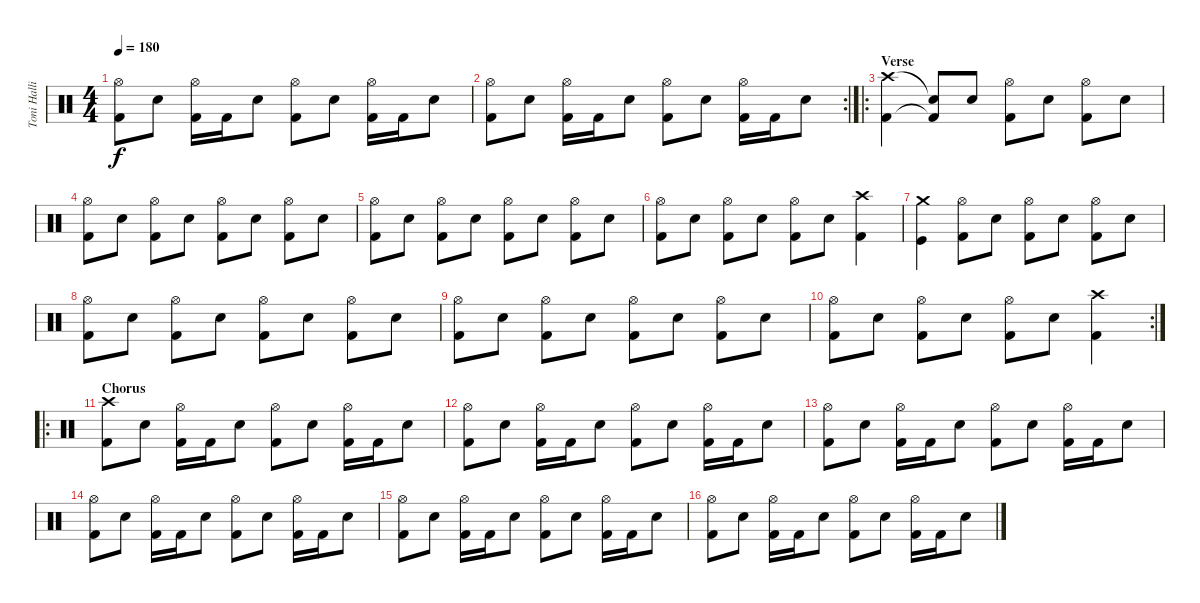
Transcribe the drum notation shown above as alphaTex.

\track ("Toni Hallio" "Toni Halli") {instrument percussion}
\staff {score}
\articulation defaults
\ts (4 4)
\tempo 180
\clef neutral
\ks c
("Hi-Hat (open)" "Kick (hit) 2").8{dy f} "Electric Snare (hit)".8 ("Hi-Hat (open)" "Kick (hit) 2").16 "Kick (hit) 2".16 "Electric Snare (hit)".8 ("Hi-Hat (open)" "Kick (hit) 2").8 "Electric Snare (hit)".8 ("Hi-Hat (open)" "Kick (hit) 2").16 "Kick (hit) 2".16 "Electric Snare (hit)".8 |
\rc 2
("Hi-Hat (open)" "Kick (hit) 2").8 "Electric Snare (hit)".8 ("Hi-Hat (open)" "Kick (hit) 2").16 "Kick (hit) 2".16 "Electric Snare (hit)".8 ("Hi-Hat (open)" "Kick (hit) 2").8 "Electric Snare (hit)".8 ("Hi-Hat (open)" "Kick (hit) 2").16 "Kick (hit) 2".16 "Electric Snare (hit)".8 |
\ro
\section ("" "Verse")
("Crash high (hit)" "Kick (hit) 2").4 ("Snare (hit)"{t} "Kick (hit) 2"{t}).8 "Electric Snare (hit)".8 ("Hi-Hat (open)" "Kick (hit) 2").8 "Electric Snare (hit)".8 ("Hi-Hat (open)" "Kick (hit) 2").8 "Electric Snare (hit)".8 |
("Hi-Hat (open)" "Kick (hit) 2").8 "Electric Snare (hit)".8 ("Hi-Hat (open)" "Kick (hit) 2").8 "Electric Snare (hit)".8 ("Hi-Hat (open)" "Kick (hit) 2").8 "Electric Snare (hit)".8 ("Hi-Hat (open)" "Kick (hit) 2").8 "Electric Snare (hit)".8 |
("Hi-Hat (open)" "Kick (hit) 2").8 "Electric Snare (hit)".8 ("Hi-Hat (open)" "Kick (hit) 2").8 "Electric Snare (hit)".8 ("Hi-Hat (open)" "Kick (hit) 2").8 "Electric Snare (hit)".8 ("Hi-Hat (open)" "Kick (hit) 2").8 "Electric Snare (hit)".8 |
("Hi-Hat (open)" "Kick (hit) 2").8 "Electric Snare (hit)".8 ("Hi-Hat (open)" "Kick (hit) 2").8 "Electric Snare (hit)".8 ("Hi-Hat (open)" "Kick (hit) 2").8 "Electric Snare (hit)".8 ("Crash high (hit)" "Kick (hit) 2").4 |
("Crash medium (hit)" "Kick (hit)").4 ("Hi-Hat (open)" "Kick (hit) 2").8 "Electric Snare (hit)".8 ("Hi-Hat (open)" "Kick (hit) 2").8 "Electric Snare (hit)".8 ("Hi-Hat (open)" "Kick (hit) 2").8 "Electric Snare (hit)".8 |
("Hi-Hat (open)" "Kick (hit) 2").8 "Electric Snare (hit)".8 ("Hi-Hat (open)" "Kick (hit) 2").8 "Electric Snare (hit)".8 ("Hi-Hat (open)" "Kick (hit) 2").8 "Electric Snare (hit)".8 ("Hi-Hat (open)" "Kick (hit) 2").8 "Electric Snare (hit)".8 |
("Hi-Hat (open)" "Kick (hit) 2").8 "Electric Snare (hit)".8 ("Hi-Hat (open)" "Kick (hit) 2").8 "Electric Snare (hit)".8 ("Hi-Hat (open)" "Kick (hit) 2").8 "Electric Snare (hit)".8 ("Hi-Hat (open)" "Kick (hit) 2").8 "Electric Snare (hit)".8 |
\rc 2
("Hi-Hat (open)" "Kick (hit) 2").8 "Electric Snare (hit)".8 ("Hi-Hat (open)" "Kick (hit) 2").8 "Electric Snare (hit)".8 ("Hi-Hat (open)" "Kick (hit) 2").8 "Electric Snare (hit)".8 ("Crash high (hit)" "Kick (hit) 2").4 |
\ro
\section ("" "Chorus")
("Crash high (hit)" "Kick (hit) 2").8 "Electric Snare (hit)".8 ("Hi-Hat (open)" "Kick (hit) 2").16 "Kick (hit) 2".16 "Electric Snare (hit)".8 ("Hi-Hat (open)" "Kick (hit) 2").8 "Electric Snare (hit)".8 ("Hi-Hat (open)" "Kick (hit) 2").16 "Kick (hit) 2".16 "Electric Snare (hit)".8 |
("Hi-Hat (open)" "Kick (hit) 2").8 "Electric Snare (hit)".8 ("Hi-Hat (open)" "Kick (hit) 2").16 "Kick (hit) 2".16 "Electric Snare (hit)".8 ("Hi-Hat (open)" "Kick (hit) 2").8 "Electric Snare (hit)".8 ("Hi-Hat (open)" "Kick (hit) 2").16 "Kick (hit) 2".16 "Electric Snare (hit)".8 |
("Hi-Hat (open)" "Kick (hit) 2").8 "Electric Snare (hit)".8 ("Hi-Hat (open)" "Kick (hit) 2").16 "Kick (hit) 2".16 "Electric Snare (hit)".8 ("Hi-Hat (open)" "Kick (hit) 2").8 "Electric Snare (hit)".8 ("Hi-Hat (open)" "Kick (hit) 2").16 "Kick (hit) 2".16 "Electric Snare (hit)".8 |
("Hi-Hat (open)" "Kick (hit) 2").8 "Electric Snare (hit)".8 ("Hi-Hat (open)" "Kick (hit) 2").16 "Kick (hit) 2".16 "Electric Snare (hit)".8 ("Hi-Hat (open)" "Kick (hit) 2").8 "Electric Snare (hit)".8 ("Hi-Hat (open)" "Kick (hit) 2").16 "Kick (hit) 2".16 "Electric Snare (hit)".8 |
("Hi-Hat (open)" "Kick (hit) 2").8 "Electric Snare (hit)".8 ("Hi-Hat (open)" "Kick (hit) 2").16 "Kick (hit) 2".16 "Electric Snare (hit)".8 ("Hi-Hat (open)" "Kick (hit) 2").8 "Electric Snare (hit)".8 ("Hi-Hat (open)" "Kick (hit) 2").16 "Kick (hit) 2".16 "Electric Snare (hit)".8 |
("Hi-Hat (open)" "Kick (hit) 2").8 "Electric Snare (hit)".8 ("Hi-Hat (open)" "Kick (hit) 2").16 "Kick (hit) 2".16 "Electric Snare (hit)".8 ("Hi-Hat (open)" "Kick (hit) 2").8 "Electric Snare (hit)".8 ("Hi-Hat (open)" "Kick (hit) 2").16 "Kick (hit) 2".16 "Electric Snare (hit)".8
